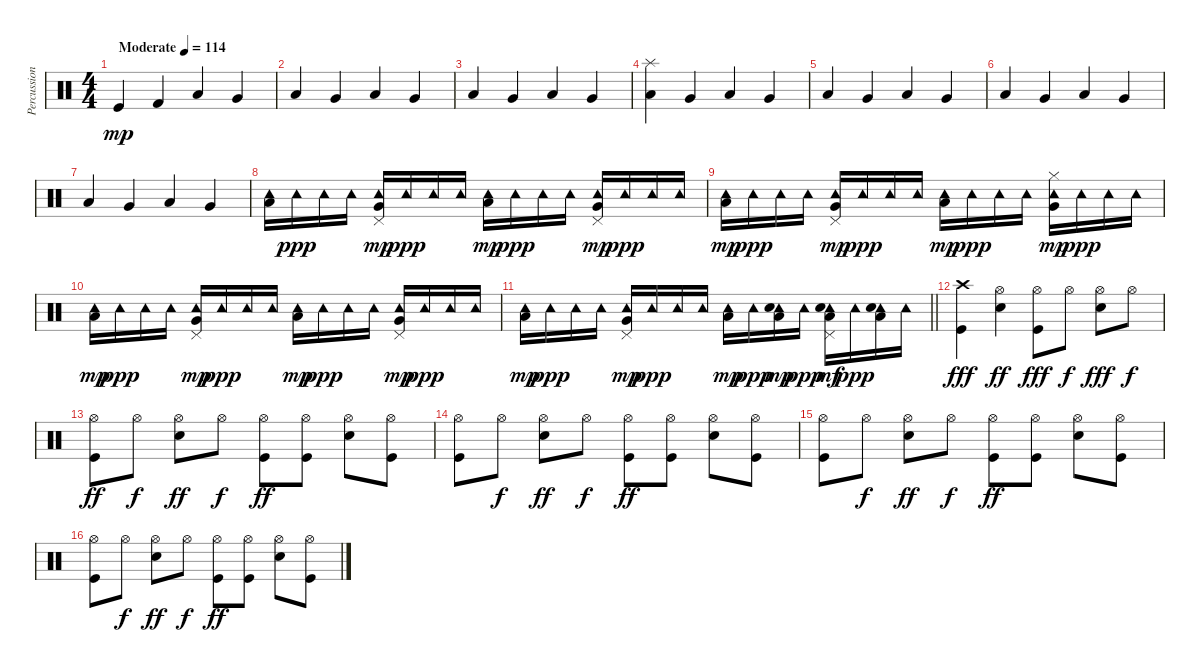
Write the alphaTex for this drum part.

\track ("Percussion" "Percussion") {instrument percussion}
\staff {score}
\articulation defaults
\ts (4 4)
\tempo (114 "Moderate")
\clef neutral
\ks c "Kick (hit)".4{dy mp} "Kick (hit) 2".4 "Low Floor Tom (hit)".4 "Very Low Tom (hit)".4
|
"Low Floor Tom (hit)".4 "Very Low Tom (hit)".4 "Low Floor Tom (hit)".4 "Very Low Tom (hit)".4 |
"Low Floor Tom (hit)".4 "Very Low Tom (hit)".4 "Low Floor Tom (hit)".4 "Very Low Tom (hit)".4 |
("Splash (hit)" "Low Floor Tom (hit)").4 "Very Low Tom (hit)".4 "Low Floor Tom (hit)".4 "Very Low Tom (hit)".4 |
"Low Floor Tom (hit)".4 "Very Low Tom (hit)".4 "Low Floor Tom (hit)".4 "Very Low Tom (hit)".4 |
"Low Floor Tom (hit)".4 "Very Low Tom (hit)".4 "Low Floor Tom (hit)".4 "Very Low Tom (hit)".4 |
"Low Floor Tom (hit)".4 "Very Low Tom (hit)".4 "Low Floor Tom (hit)".4 "Very Low Tom (hit)".4 |
("Tambourine (hit)" "Low Floor Tom (hit)").16 "Tambourine (hit)".16{dy ppp} "Tambourine (hit)".16 "Tambourine (hit)".16 ("Pedal Hi-Hat (hit)" "Tambourine (hit)" "Very Low Tom (hit)").16{dy mp} "Tambourine (hit)".16{dy ppp} "Tambourine (hit)".16 "Tambourine (hit)".16 ("Tambourine (hit)" "Low Floor Tom (hit)").16{dy mp} "Tambourine (hit)".16{dy ppp} "Tambourine (hit)".16 "Tambourine (hit)".16 ("Pedal Hi-Hat (hit)" "Tambourine (hit)" "Very Low Tom (hit)").16{dy mp} "Tambourine (hit)".16{dy ppp} "Tambourine (hit)".16 "Tambourine (hit)".16 |
("Tambourine (hit)" "Low Floor Tom (hit)").16{dy mp} "Tambourine (hit)".16{dy ppp} "Tambourine (hit)".16 "Tambourine (hit)".16 ("Pedal Hi-Hat (hit)" "Tambourine (hit)" "Very Low Tom (hit)").16{dy mp} "Tambourine (hit)".16{dy ppp} "Tambourine (hit)".16 "Tambourine (hit)".16 ("Tambourine (hit)" "Low Floor Tom (hit)").16{dy mp} "Tambourine (hit)".16{dy ppp} "Tambourine (hit)".16 "Tambourine (hit)".16 ("Hi-Hat (closed)" "Tambourine (hit)" "Very Low Tom (hit)").16{dy mp} "Tambourine (hit)".16{dy ppp} "Tambourine (hit)".16 "Tambourine (hit)".16 |
("Tambourine (hit)" "Low Floor Tom (hit)").16{dy mp} "Tambourine (hit)".16{dy ppp} "Tambourine (hit)".16 "Tambourine (hit)".16 ("Pedal Hi-Hat (hit)" "Tambourine (hit)" "Very Low Tom (hit)").16{dy mp} "Tambourine (hit)".16{dy ppp} "Tambourine (hit)".16 "Tambourine (hit)".16 ("Tambourine (hit)" "Low Floor Tom (hit)").16{dy mp} "Tambourine (hit)".16{dy ppp} "Tambourine (hit)".16 "Tambourine (hit)".16 ("Pedal Hi-Hat (hit)" "Tambourine (hit)" "Very Low Tom (hit)").16{dy mp} "Tambourine (hit)".16{dy ppp} "Tambourine (hit)".16 "Tambourine (hit)".16 |
\barLineRight lightlight
("Tambourine (hit)" "Low Floor Tom (hit)").16{dy mp} "Tambourine (hit)".16{dy ppp} "Tambourine (hit)".16 "Tambourine (hit)".16 ("Pedal Hi-Hat (hit)" "Tambourine (hit)" "Very Low Tom (hit)").16{dy mp} "Tambourine (hit)".16{dy ppp} "Tambourine (hit)".16 "Tambourine (hit)".16 ("Tambourine (hit)" "Low Floor Tom (hit)").16{dy mp} "Tambourine (hit)".16{dy ppp} ("Tambourine (hit)" "Snare (hit) 2" "Low Tom (hit)").16{dy mp} "Tambourine (hit)".16{dy ppp} ("Pedal Hi-Hat (hit)" "Tambourine (hit)" "Snare (hit) 2" "Low Tom (hit)").16{dy mf} "Tambourine (hit)".16{dy ppp} ("Tambourine (hit)" "Snare (hit) 2" "Low Tom (hit)").16 "Tambourine (hit)".16 |
("Crash high (hit)" "Kick (hit)").4{dy fff} ("Hi-Hat (open)" "Snare (hit) 2").4{dy ff} ("Hi-Hat (open)" "Kick (hit)").8{dy fff} "Hi-Hat (open)".8{dy f} ("Hi-Hat (open)" "Snare (hit) 2").8{dy fff} "Hi-Hat (open)".8{dy f} |
("Hi-Hat (open)" "Kick (hit)").8{dy ff} "Hi-Hat (open)".8{dy f} ("Hi-Hat (open)" "Snare (hit) 2").8{dy ff} "Hi-Hat (open)".8{dy f} ("Hi-Hat (open)" "Kick (hit)").8{dy ff} ("Hi-Hat (open)" "Kick (hit)").8 ("Hi-Hat (open)" "Snare (hit) 2").8 ("Hi-Hat (open)" "Kick (hit)").8 |
("Hi-Hat (open)" "Kick (hit)").8 "Hi-Hat (open)".8{dy f} ("Hi-Hat (open)" "Snare (hit) 2").8{dy ff} "Hi-Hat (open)".8{dy f} ("Hi-Hat (open)" "Kick (hit)").8{dy ff} ("Hi-Hat (open)" "Kick (hit)").8 ("Hi-Hat (open)" "Snare (hit) 2").8 ("Hi-Hat (open)" "Kick (hit)").8 |
("Hi-Hat (open)" "Kick (hit)").8 "Hi-Hat (open)".8{dy f} ("Hi-Hat (open)" "Snare (hit) 2").8{dy ff} "Hi-Hat (open)".8{dy f} ("Hi-Hat (open)" "Kick (hit)").8{dy ff} ("Hi-Hat (open)" "Kick (hit)").8 ("Hi-Hat (open)" "Snare (hit) 2").8 ("Hi-Hat (open)" "Kick (hit)").8 |
("Hi-Hat (open)" "Kick (hit)").8 "Hi-Hat (open)".8{dy f} ("Hi-Hat (open)" "Snare (hit) 2").8{dy ff} "Hi-Hat (open)".8{dy f} ("Hi-Hat (open)" "Kick (hit)").8{dy ff} ("Hi-Hat (open)" "Kick (hit)").8 ("Hi-Hat (open)" "Snare (hit) 2").8 ("Hi-Hat (open)" "Kick (hit)").8
